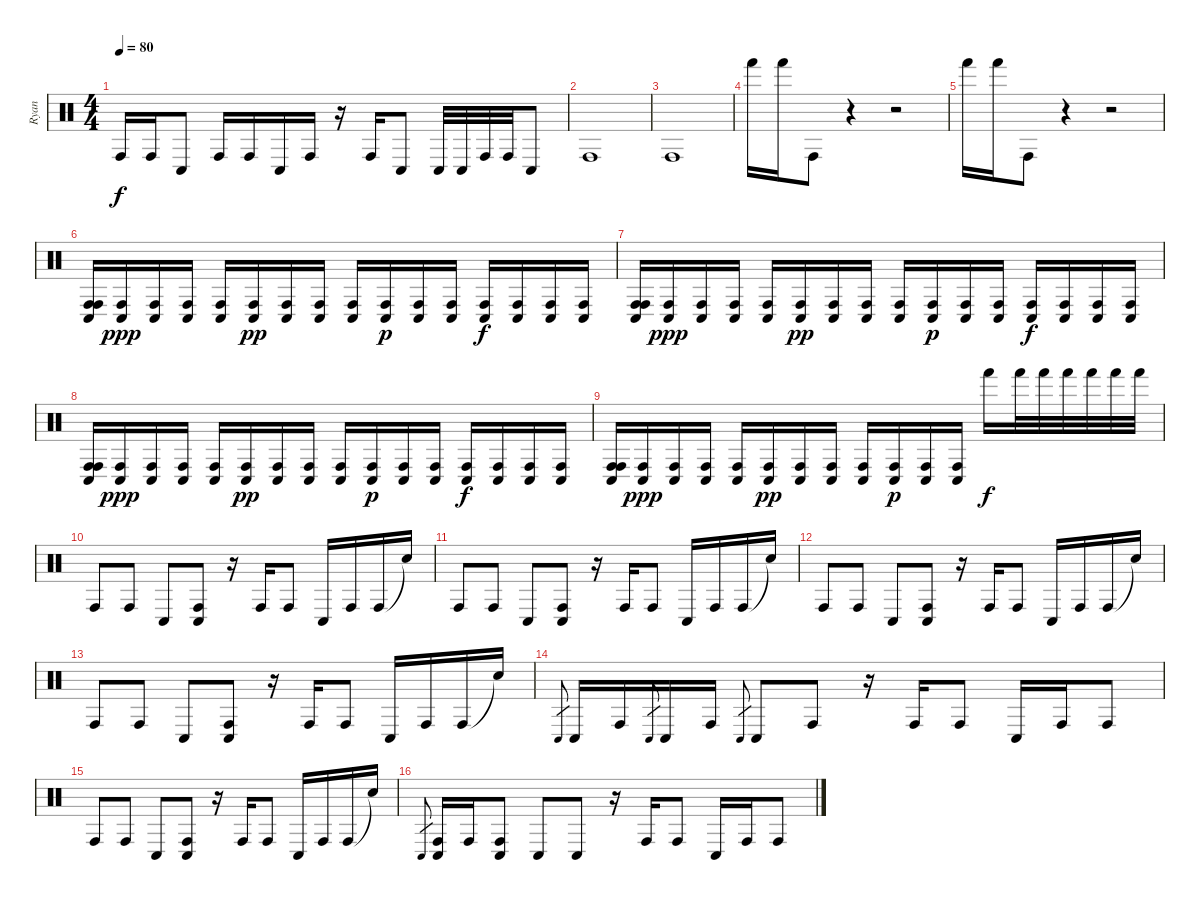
\track ("Ryan" "Ryan") {instrument percussion}
\staff {score}
\articulation defaults
\ts (4 4)
\tempo 80
\clef neutral
\ks c "Conga high (hit)".16{dy f} "Conga high (hit)".16 "Conga low (hit)".8 "Conga high (hit)".16 "Conga high (hit)".16 "Conga low (hit)".16 "Conga high (hit)".16
r.16 "Conga high (hit)".16 "Conga low (hit)".8 "Conga low (hit)".32 "Conga low (hit)".32 "Conga high (hit)".32 "Conga high (hit)".32 "Conga low (hit)".8 |
"Conga high (hit)".1 |
"Conga high (hit)".1 |
"Hand (hit)".16 "Hand (hit)".16 "Conga high (hit)".8 r.4 r.2 |
"Hand (hit)".16 "Hand (hit)".16 "Conga high (hit)".8 r.4 r.2 |
("Conga high (hit)" "Conga low (hit)" "Conga high (hit)").16 ("Conga high (hit)" "Conga low (hit)").16{dy ppp} ("Conga high (hit)" "Conga low (hit)").16 ("Conga high (hit)" "Conga low (hit)").16 ("Conga high (hit)" "Conga low (hit)").16 ("Conga high (hit)" "Conga low (hit)").16{dy pp} ("Conga high (hit)" "Conga low (hit)").16 ("Conga high (hit)" "Conga low (hit)").16 ("Conga high (hit)" "Conga low (hit)").16 ("Conga high (hit)" "Conga low (hit)").16{dy p} ("Conga high (hit)" "Conga low (hit)").16 ("Conga high (hit)" "Conga low (hit)").16 ("Conga high (hit)" "Conga low (hit)").16{dy f} ("Conga high (hit)" "Conga low (hit)").16 ("Conga high (hit)" "Conga low (hit)").16 ("Conga high (hit)" "Conga low (hit)").16 |
("Conga high (hit)" "Conga low (hit)" "Conga high (hit)").16 ("Conga high (hit)" "Conga low (hit)").16{dy ppp} ("Conga high (hit)" "Conga low (hit)").16 ("Conga high (hit)" "Conga low (hit)").16 ("Conga high (hit)" "Conga low (hit)").16 ("Conga high (hit)" "Conga low (hit)").16{dy pp} ("Conga high (hit)" "Conga low (hit)").16 ("Conga high (hit)" "Conga low (hit)").16 ("Conga high (hit)" "Conga low (hit)").16 ("Conga high (hit)" "Conga low (hit)").16{dy p} ("Conga high (hit)" "Conga low (hit)").16 ("Conga high (hit)" "Conga low (hit)").16 ("Conga high (hit)" "Conga low (hit)").16{dy f} ("Conga high (hit)" "Conga low (hit)").16 ("Conga high (hit)" "Conga low (hit)").16 ("Conga high (hit)" "Conga low (hit)").16 |
("Conga high (hit)" "Conga low (hit)" "Conga high (hit)").16 ("Conga high (hit)" "Conga low (hit)").16{dy ppp} ("Conga high (hit)" "Conga low (hit)").16 ("Conga high (hit)" "Conga low (hit)").16 ("Conga high (hit)" "Conga low (hit)").16 ("Conga high (hit)" "Conga low (hit)").16{dy pp} ("Conga high (hit)" "Conga low (hit)").16 ("Conga high (hit)" "Conga low (hit)").16 ("Conga high (hit)" "Conga low (hit)").16 ("Conga high (hit)" "Conga low (hit)").16{dy p} ("Conga high (hit)" "Conga low (hit)").16 ("Conga high (hit)" "Conga low (hit)").16 ("Conga high (hit)" "Conga low (hit)").16{dy f} ("Conga high (hit)" "Conga low (hit)").16 ("Conga high (hit)" "Conga low (hit)").16 ("Conga high (hit)" "Conga low (hit)").16 |
("Conga high (hit)" "Conga low (hit)" "Conga high (hit)").16 ("Conga high (hit)" "Conga low (hit)").16{dy ppp} ("Conga high (hit)" "Conga low (hit)").16 ("Conga high (hit)" "Conga low (hit)").16 ("Conga high (hit)" "Conga low (hit)").16 ("Conga high (hit)" "Conga low (hit)").16{dy pp} ("Conga high (hit)" "Conga low (hit)").16 ("Conga high (hit)" "Conga low (hit)").16 ("Conga high (hit)" "Conga low (hit)").16 ("Conga high (hit)" "Conga low (hit)").16{dy p} ("Conga high (hit)" "Conga low (hit)").16 ("Conga high (hit)" "Conga low (hit)").16 "Hand (hit)".16{dy f} "Hand (hit)".32 "Hand (hit)".32 "Hand (hit)".32 "Hand (hit)".32 "Hand (hit)".32 "Hand (hit)".32 |
"Conga high (hit)".8 "Conga high (hit)".8 "Conga low (hit)".8 ("Conga low (hit)" "Conga high (hit)").8 r.16 "Conga high (hit)".16 "Conga high (hit)".8 "Conga low (hit)".16 "Conga high (hit)".16 "Conga high (hit)".16 "Snare (hit)"{t}.16 |
"Conga high (hit)".8 "Conga high (hit)".8 "Conga low (hit)".8 ("Conga low (hit)" "Conga high (hit)").8 r.16 "Conga high (hit)".16 "Conga high (hit)".8 "Conga low (hit)".16 "Conga high (hit)".16 "Conga high (hit)".16 "Snare (hit)"{t}.16 |
"Conga high (hit)".8 "Conga high (hit)".8 "Conga low (hit)".8 ("Conga low (hit)" "Conga high (hit)").8 r.16 "Conga high (hit)".16 "Conga high (hit)".8 "Conga low (hit)".16 "Conga high (hit)".16 "Conga high (hit)".16 "Snare (hit)"{t}.16 |
"Conga high (hit)".8 "Conga high (hit)".8 "Conga low (hit)".8 ("Conga low (hit)" "Conga high (hit)").8 r.16 "Conga high (hit)".16 "Conga high (hit)".8 "Conga low (hit)".16 "Conga high (hit)".16 "Conga high (hit)".16 "Snare (hit)"{t}.16 |
"Conga low (hit)".8{gr} "Conga low (hit)".16 "Conga high (hit)".16 "Conga low (hit)".8{gr} "Conga low (hit)".16 "Conga high (hit)".16 "Conga low (hit)".8{gr} "Conga low (hit)".8 "Conga high (hit)".8 r.16 "Conga high (hit)".16 "Conga high (hit)".8 "Conga low (hit)".16 "Conga high (hit)".16 "Conga high (hit)".8 |
"Conga high (hit)".8 "Conga high (hit)".8 "Conga low (hit)".8 ("Conga low (hit)" "Conga high (hit)").8 r.16 "Conga high (hit)".16 "Conga high (hit)".8 "Conga low (hit)".16 "Conga high (hit)".16 "Conga high (hit)".16 "Snare (hit)"{t}.16 |
"Conga low (hit)".8{gr} ("Conga low (hit)" "Conga high (hit)").16 "Conga high (hit)".16 ("Conga low (hit)" "Conga high (hit)").8 "Conga low (hit)".8 "Conga low (hit)".8 r.16 "Conga high (hit)".16 "Conga high (hit)".8 "Conga low (hit)".16 "Conga high (hit)".16 "Conga high (hit)".8
